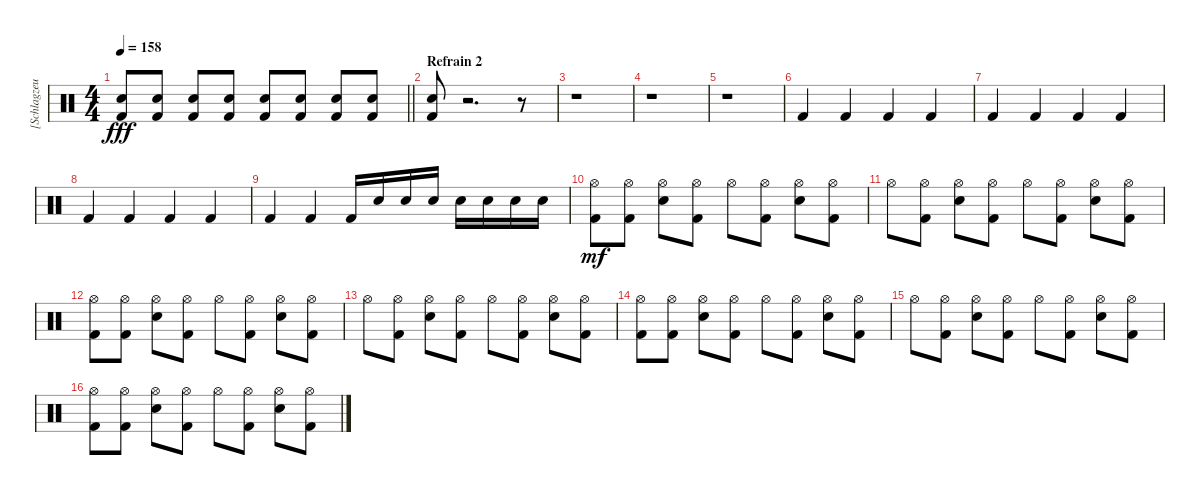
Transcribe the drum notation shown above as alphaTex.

\track ("[Schlagzeug]" "[Schlagzeu") {instrument percussion}
\staff {score}
\articulation defaults
\ts (4 4)
\tempo 158
\clef neutral
\barLineRight lightlight
\ks c
("Electric Snare (hit)" "Kick (hit) 2").8{dy fff} ("Electric Snare (hit)" "Kick (hit) 2").8 ("Electric Snare (hit)" "Kick (hit) 2").8 ("Electric Snare (hit)" "Kick (hit) 2").8 ("Electric Snare (hit)" "Kick (hit) 2").8 ("Electric Snare (hit)" "Kick (hit) 2").8 ("Electric Snare (hit)" "Kick (hit) 2").8 ("Electric Snare (hit)" "Kick (hit) 2").8 |
\section ("" "Refrain 2")
("Electric Snare (hit)" "Kick (hit) 2").8 r.2{d} r.8 |
r.1 |
r.1 |
r.1 |
"Kick (hit) 2".4 "Kick (hit) 2".4 "Kick (hit) 2".4 "Kick (hit) 2".4 |
"Kick (hit) 2".4 "Kick (hit) 2".4 "Kick (hit) 2".4 "Kick (hit) 2".4 |
"Kick (hit) 2".4 "Kick (hit) 2".4 "Kick (hit) 2".4 "Kick (hit) 2".4 |
"Kick (hit) 2".4 "Kick (hit) 2".4 "Kick (hit) 2".16 "Electric Snare (hit)".16 "Electric Snare (hit)".16 "Electric Snare (hit)".16 "Electric Snare (hit)".16 "Electric Snare (hit)".16 "Electric Snare (hit)".16 "Electric Snare (hit)".16 |
("Kick (hit) 2" "Hi-Hat (open)").8{dy mf} ("Kick (hit) 2" "Hi-Hat (open)").8 ("Electric Snare (hit)" "Hi-Hat (open)").8 ("Kick (hit) 2" "Hi-Hat (open)").8 "Hi-Hat (open)".8 ("Kick (hit) 2" "Hi-Hat (open)").8 ("Electric Snare (hit)" "Hi-Hat (open)").8 ("Kick (hit) 2" "Hi-Hat (open)").8 |
"Hi-Hat (open)".8 ("Kick (hit) 2" "Hi-Hat (open)").8 ("Electric Snare (hit)" "Hi-Hat (open)").8 ("Kick (hit) 2" "Hi-Hat (open)").8 "Hi-Hat (open)".8 ("Kick (hit) 2" "Hi-Hat (open)").8 ("Electric Snare (hit)" "Hi-Hat (open)").8 ("Kick (hit) 2" "Hi-Hat (open)").8 |
("Kick (hit) 2" "Hi-Hat (open)").8 ("Kick (hit) 2" "Hi-Hat (open)").8 ("Electric Snare (hit)" "Hi-Hat (open)").8 ("Kick (hit) 2" "Hi-Hat (open)").8 "Hi-Hat (open)".8 ("Kick (hit) 2" "Hi-Hat (open)").8 ("Electric Snare (hit)" "Hi-Hat (open)").8 ("Kick (hit) 2" "Hi-Hat (open)").8 |
"Hi-Hat (open)".8 ("Kick (hit) 2" "Hi-Hat (open)").8 ("Electric Snare (hit)" "Hi-Hat (open)").8 ("Kick (hit) 2" "Hi-Hat (open)").8 "Hi-Hat (open)".8 ("Kick (hit) 2" "Hi-Hat (open)").8 ("Electric Snare (hit)" "Hi-Hat (open)").8 ("Kick (hit) 2" "Hi-Hat (open)").8 |
("Kick (hit) 2" "Hi-Hat (open)").8 ("Kick (hit) 2" "Hi-Hat (open)").8 ("Electric Snare (hit)" "Hi-Hat (open)").8 ("Kick (hit) 2" "Hi-Hat (open)").8 "Hi-Hat (open)".8 ("Kick (hit) 2" "Hi-Hat (open)").8 ("Electric Snare (hit)" "Hi-Hat (open)").8 ("Kick (hit) 2" "Hi-Hat (open)").8 |
"Hi-Hat (open)".8 ("Kick (hit) 2" "Hi-Hat (open)").8 ("Electric Snare (hit)" "Hi-Hat (open)").8 ("Kick (hit) 2" "Hi-Hat (open)").8 "Hi-Hat (open)".8 ("Kick (hit) 2" "Hi-Hat (open)").8 ("Electric Snare (hit)" "Hi-Hat (open)").8 ("Kick (hit) 2" "Hi-Hat (open)").8 |
("Kick (hit) 2" "Hi-Hat (open)").8 ("Kick (hit) 2" "Hi-Hat (open)").8 ("Electric Snare (hit)" "Hi-Hat (open)").8 ("Kick (hit) 2" "Hi-Hat (open)").8 "Hi-Hat (open)".8 ("Kick (hit) 2" "Hi-Hat (open)").8 ("Electric Snare (hit)" "Hi-Hat (open)").8 ("Kick (hit) 2" "Hi-Hat (open)").8
